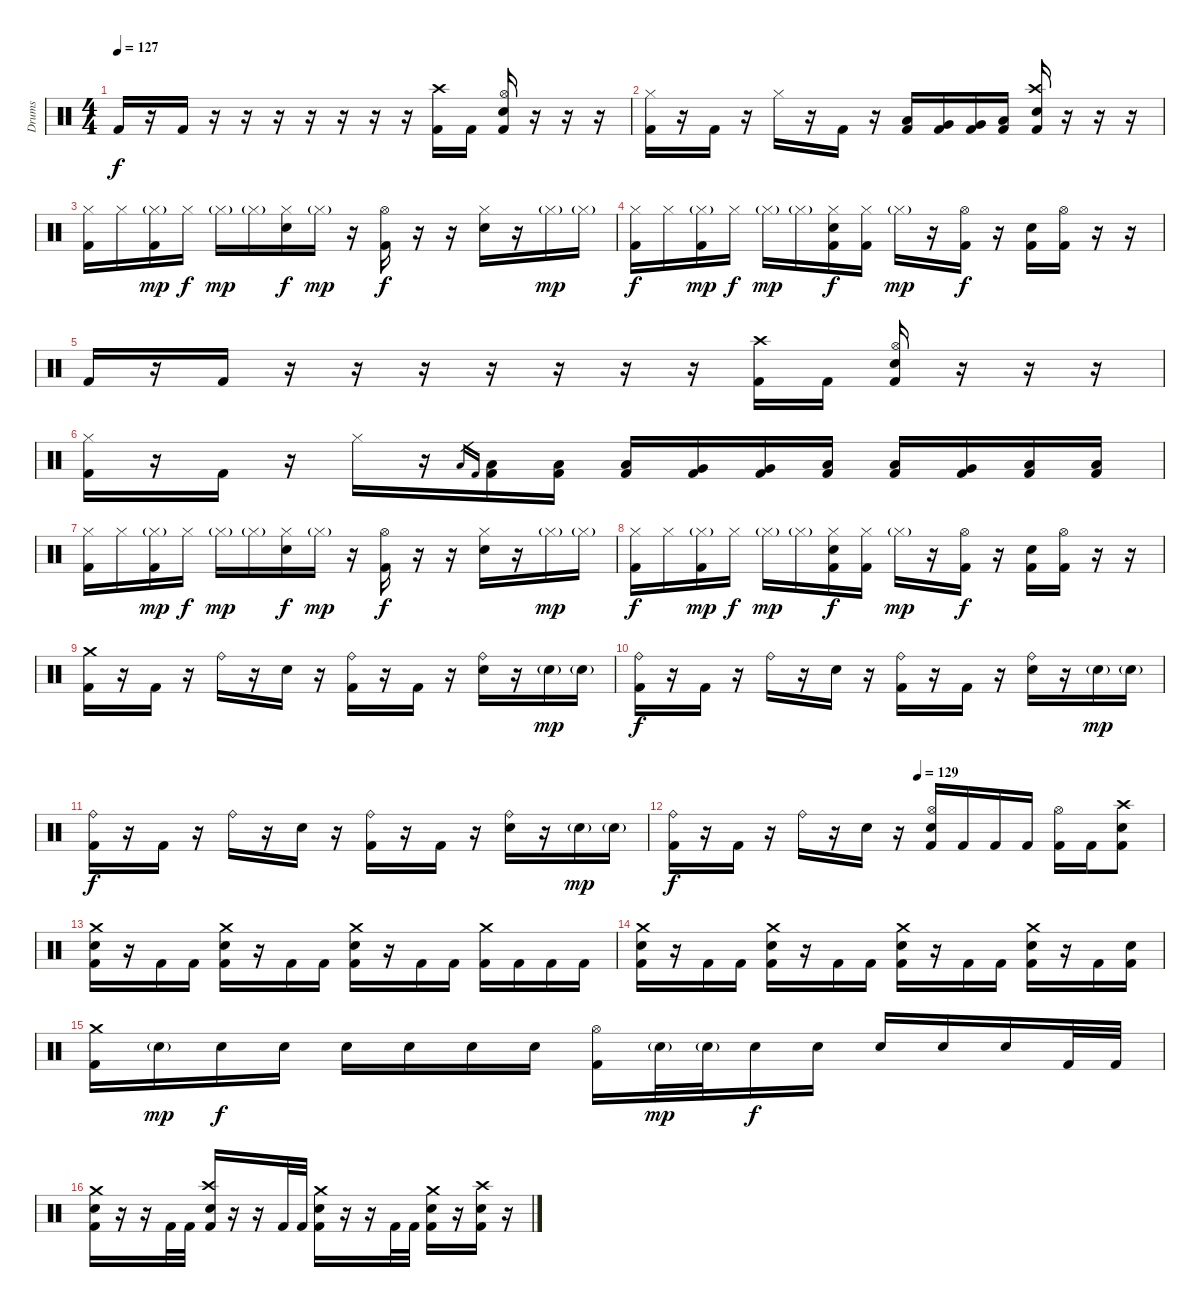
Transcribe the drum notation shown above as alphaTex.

\track ("Drums" "Drums") {instrument percussion}
\staff {score}
\articulation defaults
\ts (4 4)
\section ("" "")
\tempo 127
\clef neutral
\ks c "Kick (hit) 2".16{dy f}
r.16 "Kick (hit) 2".16 r.16 r.16 r.16 r.16 r.16 r.16 r.16 ("Crash high (hit)" "Kick (hit) 2").16 "Kick (hit) 2".16 ("Hi-Hat (open)" "Electric Snare (hit)" "Kick (hit) 2").16 r.16 r.16 r.16 |
("Hi-Hat (closed)" "Kick (hit) 2").16 r.16 "Kick (hit) 2".16 r.16 "Hi-Hat (closed)".16 r.16 "Kick (hit) 2".16 r.16 ("Low Tom (hit)" "Kick (hit) 2").16 ("Very Low Tom (hit)" "Kick (hit) 2").16 ("Very Low Tom (hit)" "Kick (hit) 2").16 ("Low Floor Tom (hit)" "Kick (hit) 2").16 ("Crash high (hit)" "Electric Snare (hit)" "Kick (hit) 2").16 r.16 r.16 r.16 |
("Hi-Hat (closed)" "Kick (hit) 2").16 "Hi-Hat (closed)".16 ("Hi-Hat (closed)"{g} "Kick (hit) 2").16{dy mp} "Hi-Hat (closed)".16{dy f} "Hi-Hat (closed)"{g}.16{dy mp} "Hi-Hat (closed)"{g}.16 ("Hi-Hat (closed)" "Electric Snare (hit)").16{dy f} "Hi-Hat (closed)"{g}.16{dy mp} r.16 ("Hi-Hat (open)" "Kick (hit) 2").16{dy f} r.16 r.16 ("Hi-Hat (closed)" "Electric Snare (hit)").16 r.16 "Hi-Hat (closed)"{g}.16{dy mp} "Hi-Hat (closed)"{g}.16 |
("Hi-Hat (closed)" "Kick (hit) 2").16{dy f} "Hi-Hat (closed)".16 ("Hi-Hat (closed)"{g} "Kick (hit) 2").16{dy mp} "Hi-Hat (closed)".16{dy f} "Hi-Hat (closed)"{g}.16{dy mp} "Hi-Hat (closed)"{g}.16 ("Hi-Hat (closed)" "Electric Snare (hit)" "Kick (hit) 2").16{dy f} ("Hi-Hat (closed)" "Kick (hit) 2").16 "Hi-Hat (closed)"{g}.16{dy mp} r.16 ("Hi-Hat (open)" "Kick (hit) 2").16{dy f} r.16 ("Electric Snare (hit)" "Kick (hit) 2").16 ("Hi-Hat (open)" "Kick (hit) 2").16 r.16 r.16 |
"Kick (hit) 2".16 r.16 "Kick (hit) 2".16 r.16 r.16 r.16 r.16 r.16 r.16 r.16 ("Crash high (hit)" "Kick (hit) 2").16 "Kick (hit) 2".16 ("Hi-Hat (open)" "Electric Snare (hit)" "Kick (hit) 2").16 r.16 r.16 r.16 |
("Hi-Hat (closed)" "Kick (hit) 2").16 r.16 "Kick (hit) 2".16 r.16 "Hi-Hat (closed)".16 r.16 "Low Tom (hit)".16{gr} "Kick (hit) 2".16{gr} ("Low Tom (hit)" "Kick (hit) 2").16 ("Low Tom (hit)" "Kick (hit) 2").16 ("Low Tom (hit)" "Kick (hit) 2").16 ("Very Low Tom (hit)" "Kick (hit) 2").16 ("Very Low Tom (hit)" "Kick (hit) 2").16 ("Low Floor Tom (hit)" "Kick (hit) 2").16 ("Low Tom (hit)" "Kick (hit) 2").16 ("Very Low Tom (hit)" "Kick (hit) 2").16 ("Low Floor Tom (hit)" "Kick (hit) 2").16 ("Low Floor Tom (hit)" "Kick (hit) 2").16 |
("Hi-Hat (closed)" "Kick (hit) 2").16 "Hi-Hat (closed)".16 ("Hi-Hat (closed)"{g} "Kick (hit) 2").16{dy mp} "Hi-Hat (closed)".16{dy f} "Hi-Hat (closed)"{g}.16{dy mp} "Hi-Hat (closed)"{g}.16 ("Hi-Hat (closed)" "Electric Snare (hit)").16{dy f} "Hi-Hat (closed)"{g}.16{dy mp} r.16 ("Hi-Hat (open)" "Kick (hit) 2").16{dy f} r.16 r.16 ("Hi-Hat (closed)" "Electric Snare (hit)").16 r.16 "Hi-Hat (closed)"{g}.16{dy mp} "Hi-Hat (closed)"{g}.16 |
("Hi-Hat (closed)" "Kick (hit) 2").16{dy f} "Hi-Hat (closed)".16 ("Hi-Hat (closed)"{g} "Kick (hit) 2").16{dy mp} "Hi-Hat (closed)".16{dy f} "Hi-Hat (closed)"{g}.16{dy mp} "Hi-Hat (closed)"{g}.16 ("Hi-Hat (closed)" "Electric Snare (hit)" "Kick (hit) 2").16{dy f} ("Hi-Hat (closed)" "Kick (hit) 2").16 "Hi-Hat (closed)"{g}.16{dy mp} r.16 ("Hi-Hat (open)" "Kick (hit) 2").16{dy f} r.16 ("Electric Snare (hit)" "Kick (hit) 2").16 ("Hi-Hat (open)" "Kick (hit) 2").16 r.16 r.16 |
\section ("" "")
("Crash medium (hit)" "Kick (hit) 2").16 r.16 "Kick (hit) 2".16 r.16 "Ride (bell)".16 r.16 "Electric Snare (hit)".16 r.16 ("Ride (bell)" "Kick (hit) 2").16 r.16 "Kick (hit) 2".16 r.16 ("Ride (bell)" "Electric Snare (hit)").16 r.16 "Electric Snare (hit)"{g}.16{dy mp} "Electric Snare (hit)"{g}.16 |
("Ride (bell)" "Kick (hit) 2").16{dy f} r.16 "Kick (hit) 2".16 r.16 "Ride (bell)".16 r.16 "Electric Snare (hit)".16 r.16 ("Ride (bell)" "Kick (hit) 2").16 r.16 "Kick (hit) 2".16 r.16 ("Ride (bell)" "Electric Snare (hit)").16 r.16 "Electric Snare (hit)"{g}.16{dy mp} "Electric Snare (hit)"{g}.16 |
("Ride (bell)" "Kick (hit) 2").16{dy f} r.16 "Kick (hit) 2".16 r.16 "Ride (bell)".16 r.16 "Electric Snare (hit)".16 r.16 ("Ride (bell)" "Kick (hit) 2").16 r.16 "Kick (hit) 2".16 r.16 ("Ride (bell)" "Electric Snare (hit)").16 r.16 "Electric Snare (hit)"{g}.16{dy mp} "Electric Snare (hit)"{g}.16 |
\tempo (129 0.5)
("Ride (bell)" "Kick (hit) 2").16{dy f} r.16 "Kick (hit) 2".16 r.16 "Ride (bell)".16 r.16 "Electric Snare (hit)".16 r.16 ("Hi-Hat (open)" "Electric Snare (hit)" "Kick (hit) 2").16 "Kick (hit) 2".16 "Kick (hit) 2".16 "Kick (hit) 2".16 ("Hi-Hat (open)" "Kick (hit) 2").16 "Kick (hit) 2".16 ("Crash high (hit)" "Electric Snare (hit)" "Kick (hit) 2").8 |
\section ("" "")
("Crash medium (hit)" "Electric Snare (hit)" "Kick (hit) 2").16 r.16 "Kick (hit) 2".16 "Kick (hit) 2".16 ("Crash medium (hit)" "Electric Snare (hit)" "Kick (hit) 2").16 r.16 "Kick (hit) 2".16 "Kick (hit) 2".16 ("Crash medium (hit)" "Electric Snare (hit)" "Kick (hit) 2").16 r.16 "Kick (hit) 2".16 "Kick (hit) 2".16 ("Crash medium (hit)" "Kick (hit) 2").16 "Kick (hit) 2".16 "Kick (hit) 2".16 "Kick (hit) 2".16 |
("Crash medium (hit)" "Electric Snare (hit)" "Kick (hit) 2").16 r.16 "Kick (hit) 2".16 "Kick (hit) 2".16 ("Crash medium (hit)" "Electric Snare (hit)" "Kick (hit) 2").16 r.16 "Kick (hit) 2".16 "Kick (hit) 2".16 ("Crash medium (hit)" "Electric Snare (hit)" "Kick (hit) 2").16 r.16 "Kick (hit) 2".16 "Kick (hit) 2".16 ("Crash medium (hit)" "Electric Snare (hit)" "Kick (hit) 2").16 r.16 "Kick (hit) 2".16 ("Electric Snare (hit)" "Kick (hit) 2").16 |
("Crash medium (hit)" "Kick (hit) 2").16 "Electric Snare (hit)"{g}.16{dy mp} "Electric Snare (hit)".16{dy f} "Electric Snare (hit)".16 "Electric Snare (hit)".16 "Electric Snare (hit)".16 "Electric Snare (hit)".16 "Electric Snare (hit)".16 ("Hi-Hat (open)" "Kick (hit) 2").16 "Electric Snare (hit)"{g}.32{dy mp} "Electric Snare (hit)"{g}.32 "Electric Snare (hit)".16{dy f} "Electric Snare (hit)".16 "Electric Snare (hit)".16 "Electric Snare (hit)".16 "Electric Snare (hit)".16 "Kick (hit) 2".32 "Kick (hit) 2".32 |
("Crash medium (hit)" "Electric Snare (hit)" "Kick (hit) 2").16 r.16 r.16 "Kick (hit) 2".32 "Kick (hit) 2".32 ("Crash high (hit)" "Electric Snare (hit)" "Kick (hit) 2").16 r.16 r.16 "Kick (hit) 2".32 "Kick (hit) 2".32 ("Crash medium (hit)" "Electric Snare (hit)" "Kick (hit) 2").16 r.16 r.16 "Kick (hit) 2".32 "Kick (hit) 2".32 ("Crash medium (hit)" "Electric Snare (hit)" "Kick (hit) 2").16 r.16 ("Crash high (hit)" "Electric Snare (hit)" "Kick (hit) 2").16 r.16
